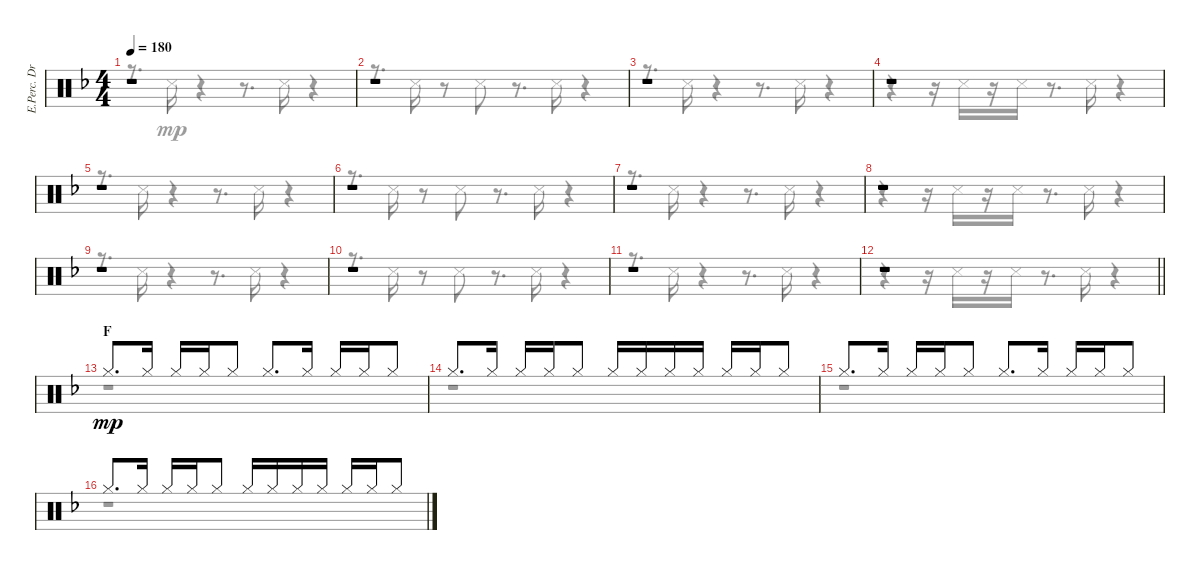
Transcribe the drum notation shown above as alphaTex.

\track ("E.Perc. Drums" "E.Perc. Dr") {instrument percussion}
\staff {score}
\articulation defaults
\voice
\ts (4 4)
\tempo 180
\clef neutral
\ks f
r.1{dy mp} |
r.1 |
r.1 |
r.1 |
r.1 |
r.1 |
r.1 |
r.1 |
r.1 |
r.1 |
r.1 |
\barLineRight lightlight
r.1 |
\section ("" "F")
"Hi-Hat (closed)".8{d} "Hi-Hat (closed)".16 "Hi-Hat (closed)".16 "Hi-Hat (closed)".16 "Hi-Hat (closed)".8 "Hi-Hat (closed)".8{d} "Hi-Hat (closed)".16 "Hi-Hat (closed)".16 "Hi-Hat (closed)".16 "Hi-Hat (closed)".8 |
"Hi-Hat (closed)".8{d} "Hi-Hat (closed)".16 "Hi-Hat (closed)".16 "Hi-Hat (closed)".16 "Hi-Hat (closed)".8 "Hi-Hat (closed)".16 "Hi-Hat (closed)".16 "Hi-Hat (closed)".16 "Hi-Hat (closed)".16 "Hi-Hat (closed)".16 "Hi-Hat (closed)".16 "Hi-Hat (closed)".8 |
"Hi-Hat (closed)".8{d} "Hi-Hat (closed)".16 "Hi-Hat (closed)".16 "Hi-Hat (closed)".16 "Hi-Hat (closed)".8 "Hi-Hat (closed)".8{d} "Hi-Hat (closed)".16 "Hi-Hat (closed)".16 "Hi-Hat (closed)".16 "Hi-Hat (closed)".8 |
"Hi-Hat (closed)".8{d} "Hi-Hat (closed)".16 "Hi-Hat (closed)".16 "Hi-Hat (closed)".16 "Hi-Hat (closed)".8 "Hi-Hat (closed)".16 "Hi-Hat (closed)".16 "Hi-Hat (closed)".16 "Hi-Hat (closed)".16 "Hi-Hat (closed)".16 "Hi-Hat (closed)".16 "Hi-Hat (closed)".8
\voice
\clef neutral
\ottava regular
\simile none
\ks f
r.8{d dy mp} "Snare (side stick) 3".16 r.4 r.8{d} "Snare (side stick) 3".16 r.4 |
r.8{d} "Snare (side stick) 3".16 r.8 "Snare (side stick) 3".8 r.8{d} "Snare (side stick) 3".16 r.4 |
r.8{d} "Snare (side stick) 3".16 r.4 r.8{d} "Snare (side stick) 3".16 r.4 |
r.4 r.16 "Snare (side stick) 3".16 r.16 "Snare (side stick) 3".16 r.8{d} "Snare (side stick) 3".16 r.4 |
r.8{d} "Snare (side stick) 3".16 r.4 r.8{d} "Snare (side stick) 3".16 r.4 |
r.8{d} "Snare (side stick) 3".16 r.8 "Snare (side stick) 3".8 r.8{d} "Snare (side stick) 3".16 r.4 |
r.8{d} "Snare (side stick) 3".16 r.4 r.8{d} "Snare (side stick) 3".16 r.4 |
r.4 r.16 "Snare (side stick) 3".16 r.16 "Snare (side stick) 3".16 r.8{d} "Snare (side stick) 3".16 r.4 |
r.8{d} "Snare (side stick) 3".16 r.4 r.8{d} "Snare (side stick) 3".16 r.4 |
r.8{d} "Snare (side stick) 3".16 r.8 "Snare (side stick) 3".8 r.8{d} "Snare (side stick) 3".16 r.4 |
r.8{d} "Snare (side stick) 3".16 r.4 r.8{d} "Snare (side stick) 3".16 r.4 |
\barLineRight lightlight
r.4 r.16 "Snare (side stick) 3".16 r.16 "Snare (side stick) 3".16 r.8{d} "Snare (side stick) 3".16 r.4 |
r.1 |
r.1 |
r.1 |
r.1
